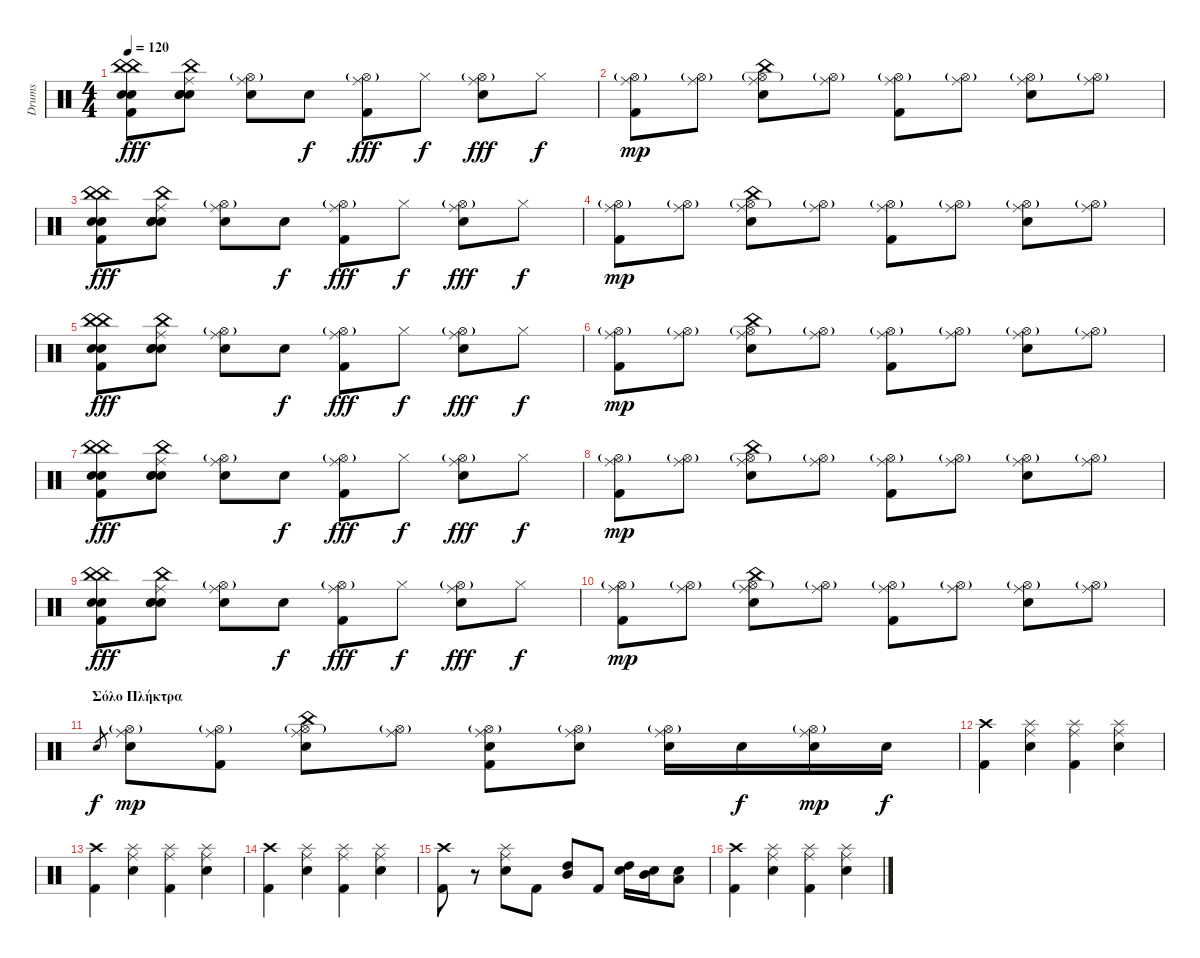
\track ("Drums" "Drums") {instrument percussion}
\staff {score}
\articulation defaults
\ts (4 4)
\tempo 120
\clef neutral
\ks c
("China (hit)" "China (hit)" "Hand Clap (hit)" "Hand Clap (hit)" "Kick (hit) 2").8{dy fff} ("China (hit)" "Ride (middle)" "Snare (hit)" "Hand Clap (hit)" "Hand Clap (hit)").8 ("Hi-Hat (open)"{g} "Ride (middle)" "Electric Snare (hit)").8 "Electric Snare (hit)".8{dy f} ("Hi-Hat (open)"{g} "Ride (middle)" "Kick (hit) 2").8{dy fff} "Hi-Hat (closed)".8{dy f} ("Hi-Hat (open)"{g} "Ride (middle)" "Electric Snare (hit)").8{dy fff} "Hi-Hat (closed)".8{dy f} |
("Ride (middle)" "Hi-Hat (open)"{g} "Kick (hit) 2").8{dy mp} ("Ride (middle)" "Hi-Hat (open)"{g}).8 ("Ride (middle)" "Hi-Hat (open)"{g} "Electric Snare (hit)" "China (hit)").8 ("Ride (middle)" "Hi-Hat (open)"{g}).8 ("Ride (middle)" "Hi-Hat (open)"{g} "Kick (hit) 2").8 ("Ride (middle)" "Hi-Hat (open)"{g}).8 ("Ride (middle)" "Hi-Hat (open)"{g} "Electric Snare (hit)").8 ("Ride (middle)" "Hi-Hat (open)"{g}).8 |
("China (hit)" "China (hit)" "Hand Clap (hit)" "Hand Clap (hit)" "Kick (hit) 2").8{dy fff} ("China (hit)" "Ride (middle)" "Snare (hit)" "Hand Clap (hit)" "Hand Clap (hit)").8 ("Hi-Hat (open)"{g} "Ride (middle)" "Electric Snare (hit)").8 "Electric Snare (hit)".8{dy f} ("Hi-Hat (open)"{g} "Ride (middle)" "Kick (hit) 2").8{dy fff} "Hi-Hat (closed)".8{dy f} ("Hi-Hat (open)"{g} "Ride (middle)" "Electric Snare (hit)").8{dy fff} "Hi-Hat (closed)".8{dy f} |
("Ride (middle)" "Hi-Hat (open)"{g} "Kick (hit) 2").8{dy mp} ("Ride (middle)" "Hi-Hat (open)"{g}).8 ("Ride (middle)" "Hi-Hat (open)"{g} "Electric Snare (hit)" "China (hit)").8 ("Ride (middle)" "Hi-Hat (open)"{g}).8 ("Ride (middle)" "Hi-Hat (open)"{g} "Kick (hit) 2").8 ("Ride (middle)" "Hi-Hat (open)"{g}).8 ("Ride (middle)" "Hi-Hat (open)"{g} "Electric Snare (hit)").8 ("Ride (middle)" "Hi-Hat (open)"{g}).8 |
("China (hit)" "China (hit)" "Hand Clap (hit)" "Hand Clap (hit)" "Kick (hit) 2").8{dy fff} ("China (hit)" "Ride (middle)" "Snare (hit)" "Hand Clap (hit)" "Hand Clap (hit)").8 ("Hi-Hat (open)"{g} "Ride (middle)" "Electric Snare (hit)").8 "Electric Snare (hit)".8{dy f} ("Hi-Hat (open)"{g} "Ride (middle)" "Kick (hit) 2").8{dy fff} "Hi-Hat (closed)".8{dy f} ("Hi-Hat (open)"{g} "Ride (middle)" "Electric Snare (hit)").8{dy fff} "Hi-Hat (closed)".8{dy f} |
("Ride (middle)" "Hi-Hat (open)"{g} "Kick (hit) 2").8{dy mp} ("Ride (middle)" "Hi-Hat (open)"{g}).8 ("Ride (middle)" "Hi-Hat (open)"{g} "Electric Snare (hit)" "China (hit)").8 ("Ride (middle)" "Hi-Hat (open)"{g}).8 ("Ride (middle)" "Hi-Hat (open)"{g} "Kick (hit) 2").8 ("Ride (middle)" "Hi-Hat (open)"{g}).8 ("Ride (middle)" "Hi-Hat (open)"{g} "Electric Snare (hit)").8 ("Ride (middle)" "Hi-Hat (open)"{g}).8 |
("China (hit)" "China (hit)" "Hand Clap (hit)" "Hand Clap (hit)" "Kick (hit) 2").8{dy fff} ("China (hit)" "Ride (middle)" "Snare (hit)" "Hand Clap (hit)" "Hand Clap (hit)").8 ("Hi-Hat (open)"{g} "Ride (middle)" "Electric Snare (hit)").8 "Electric Snare (hit)".8{dy f} ("Hi-Hat (open)"{g} "Ride (middle)" "Kick (hit) 2").8{dy fff} "Hi-Hat (closed)".8{dy f} ("Hi-Hat (open)"{g} "Ride (middle)" "Electric Snare (hit)").8{dy fff} "Hi-Hat (closed)".8{dy f} |
("Ride (middle)" "Hi-Hat (open)"{g} "Kick (hit) 2").8{dy mp} ("Ride (middle)" "Hi-Hat (open)"{g}).8 ("Ride (middle)" "Hi-Hat (open)"{g} "Electric Snare (hit)" "China (hit)").8 ("Ride (middle)" "Hi-Hat (open)"{g}).8 ("Ride (middle)" "Hi-Hat (open)"{g} "Kick (hit) 2").8 ("Ride (middle)" "Hi-Hat (open)"{g}).8 ("Ride (middle)" "Hi-Hat (open)"{g} "Electric Snare (hit)").8 ("Ride (middle)" "Hi-Hat (open)"{g}).8 |
("China (hit)" "China (hit)" "Hand Clap (hit)" "Hand Clap (hit)" "Kick (hit) 2").8{dy fff} ("China (hit)" "Ride (middle)" "Snare (hit)" "Hand Clap (hit)" "Hand Clap (hit)").8 ("Hi-Hat (open)"{g} "Ride (middle)" "Electric Snare (hit)").8 "Electric Snare (hit)".8{dy f} ("Hi-Hat (open)"{g} "Ride (middle)" "Kick (hit) 2").8{dy fff} "Hi-Hat (closed)".8{dy f} ("Hi-Hat (open)"{g} "Ride (middle)" "Electric Snare (hit)").8{dy fff} "Hi-Hat (closed)".8{dy f} |
("Ride (middle)" "Hi-Hat (open)"{g} "Kick (hit) 2").8{dy mp} ("Ride (middle)" "Hi-Hat (open)"{g}).8 ("Ride (middle)" "Hi-Hat (open)"{g} "Electric Snare (hit)" "China (hit)").8 ("Ride (middle)" "Hi-Hat (open)"{g}).8 ("Ride (middle)" "Hi-Hat (open)"{g} "Kick (hit) 2").8 ("Ride (middle)" "Hi-Hat (open)"{g}).8 ("Ride (middle)" "Hi-Hat (open)"{g} "Electric Snare (hit)").8 ("Ride (middle)" "Hi-Hat (open)"{g}).8 |
\section ("" "Σόλο Πλήκτρα")
"Electric Snare (hit)".8{gr dy f} ("Ride (middle)" "Hi-Hat (open)"{g} "Electric Snare (hit)").8{dy mp} ("Ride (middle)" "Hi-Hat (open)"{g} "Kick (hit) 2").8 ("Ride (middle)" "Hi-Hat (open)"{g} "Electric Snare (hit)" "China (hit)").8 ("Ride (middle)" "Hi-Hat (open)"{g}).8 ("Ride (middle)" "Hi-Hat (open)"{g} "Electric Snare (hit)" "Kick (hit) 2").8 ("Ride (middle)" "Hi-Hat (open)"{g} "Electric Snare (hit)").8 ("Ride (middle)" "Hi-Hat (open)"{g} "Electric Snare (hit)").16 "Electric Snare (hit)".16{dy f} ("Ride (middle)" "Hi-Hat (open)"{g} "Electric Snare (hit)").16{dy mp} "Electric Snare (hit)".16{dy f} |
("Crash high (hit)" "Kick (hit) 2").4 ("Ride (middle)" "Splash (hit)" "Electric Snare (hit)").4 ("Ride (middle)" "Splash (hit)" "Kick (hit) 2").4 ("Ride (middle)" "Splash (hit)" "Electric Snare (hit)").4 |
("Crash high (hit)" "Kick (hit) 2").4 ("Ride (middle)" "Splash (hit)" "Electric Snare (hit)").4 ("Ride (middle)" "Splash (hit)" "Kick (hit) 2").4 ("Ride (middle)" "Splash (hit)" "Electric Snare (hit)").4 |
("Crash high (hit)" "Kick (hit) 2").4 ("Ride (middle)" "Splash (hit)" "Electric Snare (hit)").4 ("Ride (middle)" "Splash (hit)" "Kick (hit) 2").4 ("Ride (middle)" "Splash (hit)" "Electric Snare (hit)").4 |
("Crash high (hit)" "Kick (hit) 2").8 r.8 ("Ride (middle)" "Splash (hit)" "Electric Snare (hit)").8 "Kick (hit) 2".8 ("Mid Tom (hit)" "High Tom (hit)").8 "Kick (hit) 2".8 ("High Tom (hit)" "Electric Snare (hit)").16 ("Mid Tom (hit)" "Electric Snare (hit)").16 ("Low Tom (hit)" "Electric Snare (hit)").8 |
("Crash high (hit)" "Kick (hit) 2").4 ("Ride (middle)" "Splash (hit)" "Electric Snare (hit)").4 ("Ride (middle)" "Splash (hit)" "Kick (hit) 2").4 ("Ride (middle)" "Splash (hit)" "Electric Snare (hit)").4
